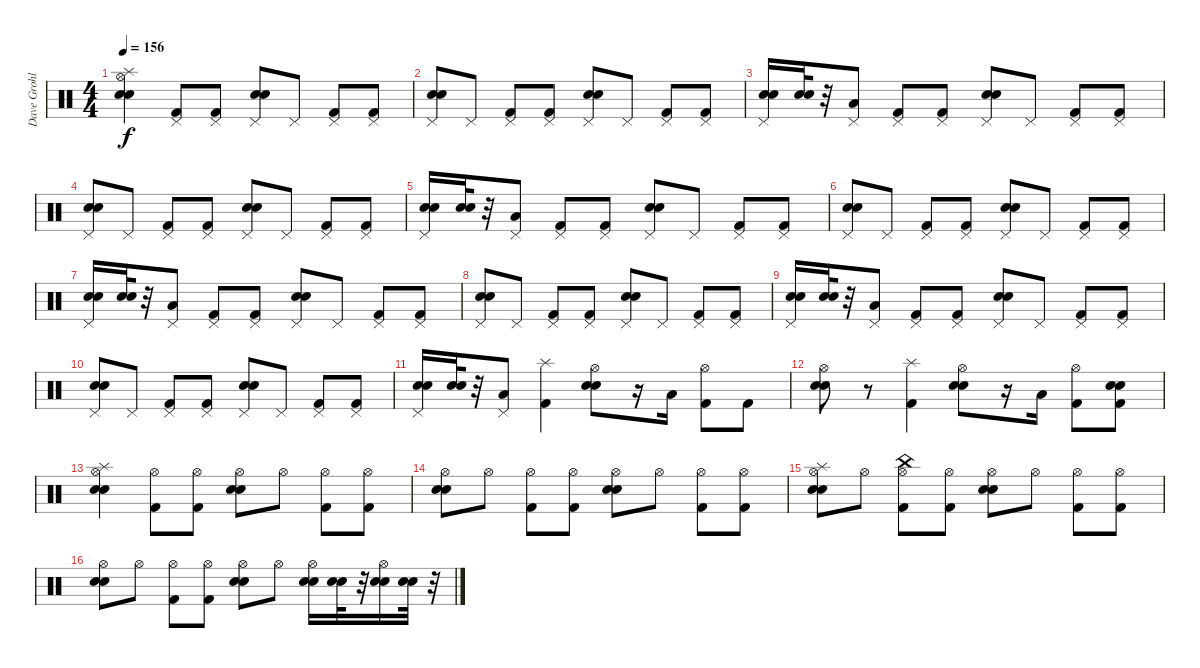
\track ("Dave Grohl" "Dave Grohl") {instrument percussion}
\staff {score}
\articulation defaults
\ts (4 4)
\tempo 156
\clef neutral
\ks c
("Hi-Hat (open)" "Splash (hit)" "Snare (hit) 2" "Electric Snare (hit)").4{dy f} ("Kick (hit) 2" "Pedal Hi-Hat (hit)").8 ("Kick (hit) 2" "Pedal Hi-Hat (hit)").8 ("Snare (hit) 2" "Electric Snare (hit)" "Pedal Hi-Hat (hit)").8 "Pedal Hi-Hat (hit)".8 ("Kick (hit) 2" "Pedal Hi-Hat (hit)").8 ("Kick (hit) 2" "Pedal Hi-Hat (hit)").8 |
("Snare (hit) 2" "Electric Snare (hit)" "Pedal Hi-Hat (hit)").8 "Pedal Hi-Hat (hit)".8 ("Kick (hit) 2" "Pedal Hi-Hat (hit)").8 ("Kick (hit) 2" "Pedal Hi-Hat (hit)").8 ("Snare (hit) 2" "Electric Snare (hit)" "Pedal Hi-Hat (hit)").8 "Pedal Hi-Hat (hit)".8 ("Kick (hit) 2" "Pedal Hi-Hat (hit)").8 ("Kick (hit) 2" "Pedal Hi-Hat (hit)").8 |
("Pedal Hi-Hat (hit)" "Snare (hit) 2" "Electric Snare (hit)").16 ("Snare (hit) 2" "Electric Snare (hit)").32 r.32 ("Pedal Hi-Hat (hit)" "Low Floor Tom (hit)").8 ("Kick (hit) 2" "Pedal Hi-Hat (hit)").8 ("Kick (hit) 2" "Pedal Hi-Hat (hit)").8 ("Snare (hit) 2" "Electric Snare (hit)" "Pedal Hi-Hat (hit)").8 "Pedal Hi-Hat (hit)".8 ("Kick (hit) 2" "Pedal Hi-Hat (hit)").8 ("Kick (hit) 2" "Pedal Hi-Hat (hit)").8 |
("Snare (hit) 2" "Electric Snare (hit)" "Pedal Hi-Hat (hit)").8 "Pedal Hi-Hat (hit)".8 ("Kick (hit) 2" "Pedal Hi-Hat (hit)").8 ("Kick (hit) 2" "Pedal Hi-Hat (hit)").8 ("Snare (hit) 2" "Electric Snare (hit)" "Pedal Hi-Hat (hit)").8 "Pedal Hi-Hat (hit)".8 ("Kick (hit) 2" "Pedal Hi-Hat (hit)").8 ("Kick (hit) 2" "Pedal Hi-Hat (hit)").8 |
("Pedal Hi-Hat (hit)" "Snare (hit) 2" "Electric Snare (hit)").16 ("Snare (hit) 2" "Electric Snare (hit)").32 r.32 ("Pedal Hi-Hat (hit)" "Low Floor Tom (hit)").8 ("Kick (hit) 2" "Pedal Hi-Hat (hit)").8 ("Kick (hit) 2" "Pedal Hi-Hat (hit)").8 ("Snare (hit) 2" "Electric Snare (hit)" "Pedal Hi-Hat (hit)").8 "Pedal Hi-Hat (hit)".8 ("Kick (hit) 2" "Pedal Hi-Hat (hit)").8 ("Kick (hit) 2" "Pedal Hi-Hat (hit)").8 |
("Snare (hit) 2" "Electric Snare (hit)" "Pedal Hi-Hat (hit)").8 "Pedal Hi-Hat (hit)".8 ("Kick (hit) 2" "Pedal Hi-Hat (hit)").8 ("Kick (hit) 2" "Pedal Hi-Hat (hit)").8 ("Snare (hit) 2" "Electric Snare (hit)" "Pedal Hi-Hat (hit)").8 "Pedal Hi-Hat (hit)".8 ("Kick (hit) 2" "Pedal Hi-Hat (hit)").8 ("Kick (hit) 2" "Pedal Hi-Hat (hit)").8 |
("Pedal Hi-Hat (hit)" "Snare (hit) 2" "Electric Snare (hit)").16 ("Snare (hit) 2" "Electric Snare (hit)").32 r.32 ("Pedal Hi-Hat (hit)" "Low Floor Tom (hit)").8 ("Kick (hit) 2" "Pedal Hi-Hat (hit)").8 ("Kick (hit) 2" "Pedal Hi-Hat (hit)").8 ("Snare (hit) 2" "Electric Snare (hit)" "Pedal Hi-Hat (hit)").8 "Pedal Hi-Hat (hit)".8 ("Kick (hit) 2" "Pedal Hi-Hat (hit)").8 ("Kick (hit) 2" "Pedal Hi-Hat (hit)").8 |
("Snare (hit) 2" "Electric Snare (hit)" "Pedal Hi-Hat (hit)").8 "Pedal Hi-Hat (hit)".8 ("Kick (hit) 2" "Pedal Hi-Hat (hit)").8 ("Kick (hit) 2" "Pedal Hi-Hat (hit)").8 ("Snare (hit) 2" "Electric Snare (hit)" "Pedal Hi-Hat (hit)").8 "Pedal Hi-Hat (hit)".8 ("Kick (hit) 2" "Pedal Hi-Hat (hit)").8 ("Kick (hit) 2" "Pedal Hi-Hat (hit)").8 |
("Pedal Hi-Hat (hit)" "Snare (hit) 2" "Electric Snare (hit)").16 ("Snare (hit) 2" "Electric Snare (hit)").32 r.32 ("Pedal Hi-Hat (hit)" "Low Floor Tom (hit)").8 ("Kick (hit) 2" "Pedal Hi-Hat (hit)").8 ("Kick (hit) 2" "Pedal Hi-Hat (hit)").8 ("Snare (hit) 2" "Electric Snare (hit)" "Pedal Hi-Hat (hit)").8 "Pedal Hi-Hat (hit)".8 ("Kick (hit) 2" "Pedal Hi-Hat (hit)").8 ("Kick (hit) 2" "Pedal Hi-Hat (hit)").8 |
("Snare (hit) 2" "Electric Snare (hit)" "Pedal Hi-Hat (hit)").8 "Pedal Hi-Hat (hit)".8 ("Kick (hit) 2" "Pedal Hi-Hat (hit)").8 ("Kick (hit) 2" "Pedal Hi-Hat (hit)").8 ("Snare (hit) 2" "Electric Snare (hit)" "Pedal Hi-Hat (hit)").8 "Pedal Hi-Hat (hit)".8 ("Kick (hit) 2" "Pedal Hi-Hat (hit)").8 ("Kick (hit) 2" "Pedal Hi-Hat (hit)").8 |
("Pedal Hi-Hat (hit)" "Snare (hit) 2" "Electric Snare (hit)").16 ("Snare (hit) 2" "Electric Snare (hit)").32 r.32 ("Pedal Hi-Hat (hit)" "Low Floor Tom (hit)").8 ("Kick (hit) 2" "Splash (hit)").4 ("Electric Snare (hit)" "Snare (hit) 2" "Hi-Hat (open)").8 r.16 "Low Floor Tom (hit)".16 ("Kick (hit) 2" "Hi-Hat (open)").8 "Kick (hit) 2".8 |
("Snare (hit) 2" "Electric Snare (hit)" "Hi-Hat (open)").8 r.8 ("Kick (hit) 2" "Splash (hit)").4 ("Electric Snare (hit)" "Snare (hit) 2" "Hi-Hat (open)").8 r.16 "Low Floor Tom (hit)".16 ("Hi-Hat (open)" "Kick (hit) 2").8 ("Snare (hit) 2" "Electric Snare (hit)" "Kick (hit) 2").8 |
("Hi-Hat (open)" "Splash (hit)" "Snare (hit) 2" "Electric Snare (hit)").4 ("Kick (hit) 2" "Hi-Hat (open)").8 ("Kick (hit) 2" "Hi-Hat (open)").8 ("Snare (hit) 2" "Electric Snare (hit)" "Hi-Hat (open)").8 "Hi-Hat (open)".8 ("Kick (hit) 2" "Hi-Hat (open)").8 ("Kick (hit) 2" "Hi-Hat (open)").8 |
("Snare (hit) 2" "Electric Snare (hit)" "Hi-Hat (open)").8 "Hi-Hat (open)".8 ("Kick (hit) 2" "Hi-Hat (open)").8 ("Kick (hit) 2" "Hi-Hat (open)").8 ("Snare (hit) 2" "Electric Snare (hit)" "Hi-Hat (open)").8 "Hi-Hat (open)".8 ("Kick (hit) 2" "Hi-Hat (open)").8 ("Kick (hit) 2" "Hi-Hat (open)").8 |
("Hi-Hat (open)" "Snare (hit) 2" "Electric Snare (hit)" "Splash (hit)").8 "Hi-Hat (open)".8 ("Kick (hit) 2" "Hi-Hat (open)" "China (hit)").8 ("Kick (hit) 2" "Hi-Hat (open)").8 ("Snare (hit) 2" "Electric Snare (hit)" "Hi-Hat (open)").8 "Hi-Hat (open)".8 ("Kick (hit) 2" "Hi-Hat (open)").8 ("Kick (hit) 2" "Hi-Hat (open)").8 |
("Snare (hit) 2" "Electric Snare (hit)" "Hi-Hat (open)").8 "Hi-Hat (open)".8 ("Kick (hit) 2" "Hi-Hat (open)").8 ("Kick (hit) 2" "Hi-Hat (open)").8 ("Snare (hit) 2" "Electric Snare (hit)" "Hi-Hat (open)").8 "Hi-Hat (open)".8 ("Snare (hit) 2" "Electric Snare (hit)" "Hi-Hat (open)").16 ("Snare (hit) 2" "Electric Snare (hit)").32 r.32 ("Snare (hit) 2" "Electric Snare (hit)" "Hi-Hat (open)").16 ("Snare (hit) 2" "Electric Snare (hit)").32 r.32
